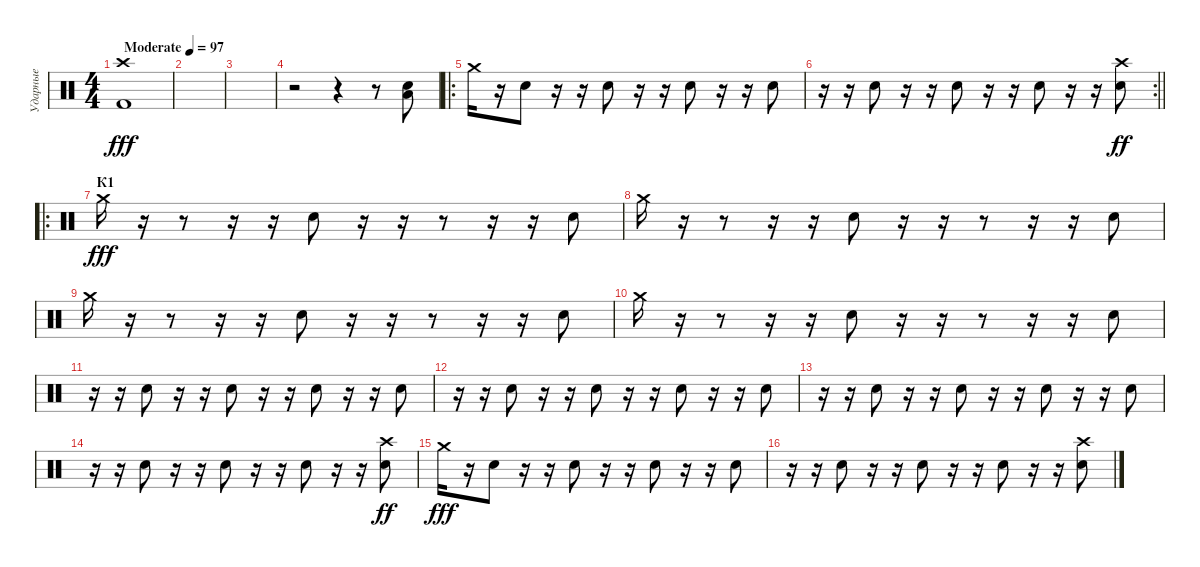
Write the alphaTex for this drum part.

\track ("Ударные" "Ударные") {instrument percussion}
\staff {score}
\articulation defaults
\ts (4 4)
\tempo (97 "Moderate")
\clef neutral
\ks c
("Kick (hit) 2" "Crash high (hit)").1{dy fff} |
|
|
r.2 r.4 r.8 ("Electric Snare (hit)" "Low Floor Tom (hit)").8{volume 16} |
\ro "Crash medium (hit)".16{volume 10}
r.16 "Electric Snare (hit)".8 r.16 r.16 "Electric Snare (hit)".8 r.16 r.16 "Electric Snare (hit)".8 r.16 r.16 "Electric Snare (hit)".8 |
\rc 2
\barLineRight lightlight
r.16 r.16 "Electric Snare (hit)".8 r.16 r.16 "Electric Snare (hit)".8 r.16 r.16 "Electric Snare (hit)".8 r.16 r.16 ("Electric Snare (hit)" "Crash high (hit)").8{dy ff} |
\ro
\section ("" "К1")
"Crash medium (hit)".16{dy fff} r.16 r.8 r.16 r.16 "Electric Snare (hit)".8 r.16 r.16 r.8 r.16 r.16 "Electric Snare (hit)".8 |
"Crash medium (hit)".16 r.16 r.8 r.16 r.16 "Electric Snare (hit)".8 r.16 r.16 r.8 r.16 r.16 "Electric Snare (hit)".8 |
"Crash medium (hit)".16 r.16 r.8 r.16 r.16 "Electric Snare (hit)".8 r.16 r.16 r.8 r.16 r.16 "Electric Snare (hit)".8 |
"Crash medium (hit)".16 r.16 r.8 r.16 r.16 "Electric Snare (hit)".8 r.16 r.16 r.8 r.16 r.16 "Electric Snare (hit)".8 |
r.16 r.16 "Electric Snare (hit)".8 r.16 r.16 "Electric Snare (hit)".8 r.16 r.16 "Electric Snare (hit)".8 r.16 r.16 "Electric Snare (hit)".8 |
r.16 r.16 "Electric Snare (hit)".8 r.16 r.16 "Electric Snare (hit)".8 r.16 r.16 "Electric Snare (hit)".8 r.16 r.16 "Electric Snare (hit)".8 |
r.16 r.16 "Electric Snare (hit)".8 r.16 r.16 "Electric Snare (hit)".8 r.16 r.16 "Electric Snare (hit)".8 r.16 r.16 "Electric Snare (hit)".8 |
r.16 r.16 "Electric Snare (hit)".8 r.16 r.16 "Electric Snare (hit)".8 r.16 r.16 "Electric Snare (hit)".8 r.16 r.16 ("Electric Snare (hit)" "Crash high (hit)").8{dy ff} |
"Crash medium (hit)".16{dy fff} r.16 "Electric Snare (hit)".8 r.16 r.16 "Electric Snare (hit)".8 r.16 r.16 "Electric Snare (hit)".8 r.16 r.16 "Electric Snare (hit)".8 |
r.16 r.16 "Electric Snare (hit)".8 r.16 r.16 "Electric Snare (hit)".8 r.16 r.16 "Electric Snare (hit)".8 r.16 r.16 ("Electric Snare (hit)" "Crash high (hit)").8
